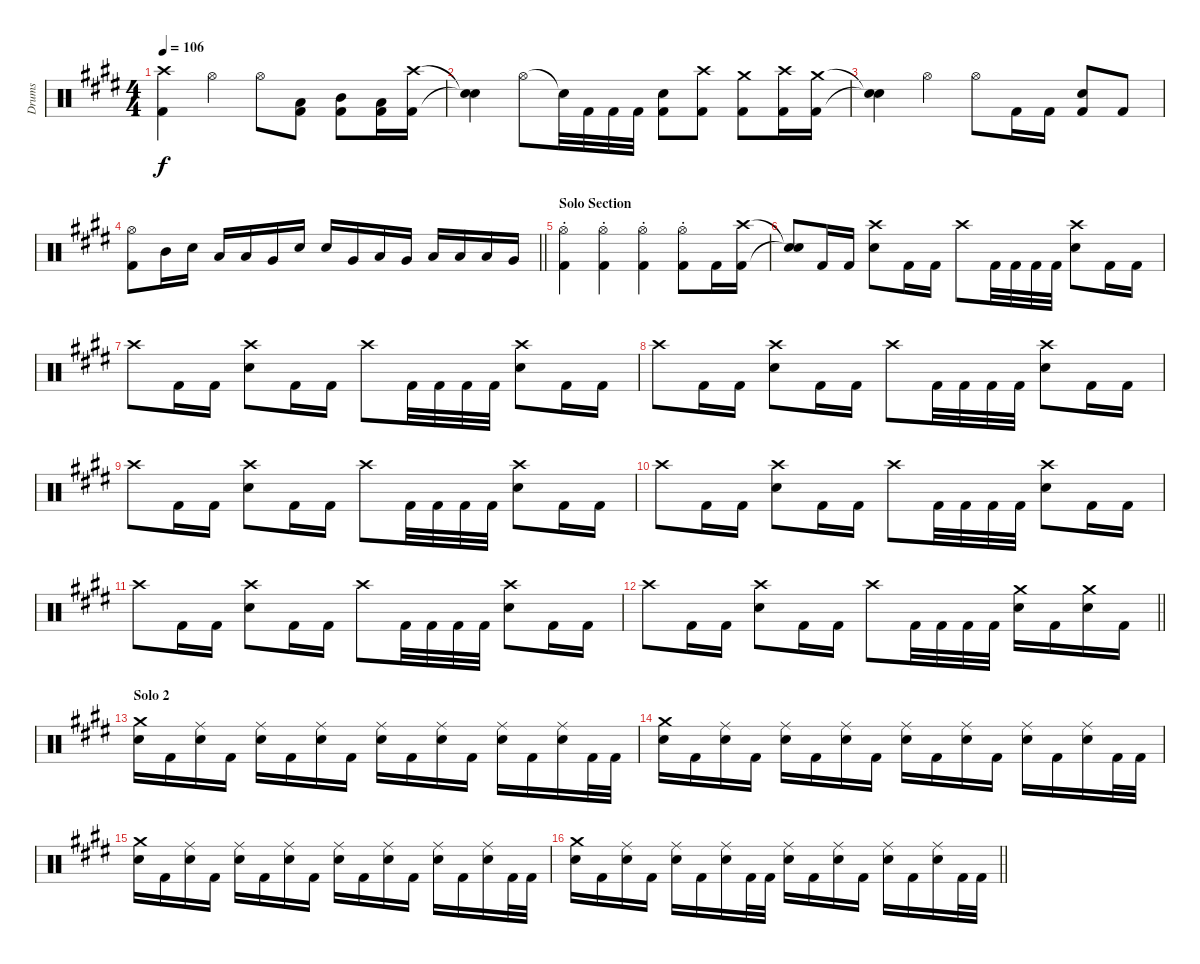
\track ("Drums" "Drums") {instrument percussion}
\staff {score}
\articulation defaults
\ts (4 4)
\tempo 106
\clef neutral
\ks c#minor
("Crash high (hit)" "Kick (hit) 2").4{dy f} "Hi-Hat (open)".4 "Hi-Hat (open)".8 ("Low Tom (hit)" "Kick (hit) 2").8 ("Mid Tom (hit)" "Kick (hit) 2").8 ("Low Tom (hit)" "Kick (hit) 2").16 ("Crash high (hit)" "Kick (hit) 2").16 |
("Snare (hit)"{t} "Snare (hit)"{t}).4 "Hi-Hat (open)".8 "Snare (hit)"{t}.32 "Kick (hit) 2".32 "Kick (hit) 2".32 "Kick (hit) 2".32 ("Snare (hit) 2" "Kick (hit) 2").8 ("Crash high (hit)" "Kick (hit) 2").8 ("Crash medium (hit)" "Kick (hit) 2").8 ("Crash high (hit)" "Kick (hit) 2").16 ("Crash medium (hit)" "Kick (hit) 2").16 |
("Snare (hit)"{t} "Snare (hit)"{t}).4 "Hi-Hat (open)".4 "Hi-Hat (open)".8 "Kick (hit) 2".16 "Kick (hit) 2".16 ("Snare (hit) 2" "Kick (hit) 2").8 "Kick (hit) 2".8 |
\barLineRight lightlight
("Hi-Hat (open)" "Kick (hit) 2").8 "Mid Tom (hit)".16 "Snare (hit) 2".16 "Low Tom (hit)".16 "Low Tom (hit)".16 "Very Low Tom (hit)".16 "Snare (hit) 2".16 "Snare (hit) 2".16 "Very Low Tom (hit)".16 "Low Floor Tom (hit)".16 "Very Low Tom (hit)".16 "Low Tom (hit)".16 "Low Tom (hit)".16 "Low Tom (hit)".16 "Very Low Tom (hit)".16 |
\section ("" "Solo Section")
("Hi-Hat (open)"{st} "Kick (hit) 2"{st}).4 ("Hi-Hat (open)"{st} "Kick (hit) 2"{st}).4 ("Hi-Hat (open)"{st} "Kick (hit) 2"{st}).4 ("Hi-Hat (open)"{st} "Kick (hit) 2").8 "Kick (hit) 2".16 ("Crash high (hit)" "Kick (hit) 2").16 |
("Snare (hit)"{t} "Snare (hit)"{t}).8 "Kick (hit) 2".16 "Kick (hit) 2".16 ("Crash high (hit)" "Snare (hit) 2").8 "Kick (hit) 2".16 "Kick (hit) 2".16 "Crash high (hit)".8 "Kick (hit) 2".32 "Kick (hit) 2".32 "Kick (hit) 2".32 "Kick (hit) 2".32 ("Crash high (hit)" "Snare (hit) 2").8 "Kick (hit) 2".16 "Kick (hit) 2".16 |
"Crash high (hit)".8 "Kick (hit) 2".16 "Kick (hit) 2".16 ("Crash high (hit)" "Snare (hit) 2").8 "Kick (hit) 2".16 "Kick (hit) 2".16 "Crash high (hit)".8 "Kick (hit) 2".32 "Kick (hit) 2".32 "Kick (hit) 2".32 "Kick (hit) 2".32 ("Crash high (hit)" "Snare (hit) 2").8 "Kick (hit) 2".16 "Kick (hit) 2".16 |
"Crash high (hit)".8 "Kick (hit) 2".16 "Kick (hit) 2".16 ("Crash high (hit)" "Snare (hit) 2").8 "Kick (hit) 2".16 "Kick (hit) 2".16 "Crash high (hit)".8 "Kick (hit) 2".32 "Kick (hit) 2".32 "Kick (hit) 2".32 "Kick (hit) 2".32 ("Crash high (hit)" "Snare (hit) 2").8 "Kick (hit) 2".16 "Kick (hit) 2".16 |
"Crash high (hit)".8 "Kick (hit) 2".16 "Kick (hit) 2".16 ("Crash high (hit)" "Snare (hit) 2").8 "Kick (hit) 2".16 "Kick (hit) 2".16 "Crash high (hit)".8 "Kick (hit) 2".32 "Kick (hit) 2".32 "Kick (hit) 2".32 "Kick (hit) 2".32 ("Crash high (hit)" "Snare (hit) 2").8 "Kick (hit) 2".16 "Kick (hit) 2".16 |
"Crash high (hit)".8 "Kick (hit) 2".16 "Kick (hit) 2".16 ("Crash high (hit)" "Snare (hit) 2").8 "Kick (hit) 2".16 "Kick (hit) 2".16 "Crash high (hit)".8 "Kick (hit) 2".32 "Kick (hit) 2".32 "Kick (hit) 2".32 "Kick (hit) 2".32 ("Crash high (hit)" "Snare (hit) 2").8 "Kick (hit) 2".16 "Kick (hit) 2".16 |
"Crash high (hit)".8 "Kick (hit) 2".16 "Kick (hit) 2".16 ("Crash high (hit)" "Snare (hit) 2").8 "Kick (hit) 2".16 "Kick (hit) 2".16 "Crash high (hit)".8 "Kick (hit) 2".32 "Kick (hit) 2".32 "Kick (hit) 2".32 "Kick (hit) 2".32 ("Crash high (hit)" "Snare (hit) 2").8 "Kick (hit) 2".16 "Kick (hit) 2".16 |
\barLineRight lightlight "Crash high (hit)".8 "Kick (hit) 2".16 "Kick (hit) 2".16
("Crash high (hit)" "Snare (hit) 2").8 "Kick (hit) 2".16 "Kick (hit) 2".16 "Crash high (hit)".8 "Kick (hit) 2".32 "Kick (hit) 2".32 "Kick (hit) 2".32 "Kick (hit) 2".32 ("Crash medium (hit)" "Snare (hit) 2").16 "Kick (hit) 2".16 ("Crash medium (hit)" "Snare (hit) 2").16 "Kick (hit) 2".16 |
\section ("" "Solo 2")
("Crash medium (hit)" "Snare (hit) 2").16 "Kick (hit) 2".16 ("Ride (middle)" "Snare (hit) 2").16 "Kick (hit) 2".16 ("Ride (middle)" "Snare (hit) 2").16 "Kick (hit) 2".16 ("Ride (middle)" "Snare (hit) 2").16 "Kick (hit) 2".16 ("Ride (middle)" "Snare (hit) 2").16 "Kick (hit) 2".16 ("Ride (middle)" "Snare (hit) 2").16 "Kick (hit) 2".16 ("Ride (middle)" "Snare (hit) 2").16 "Kick (hit) 2".16 ("Ride (middle)" "Snare (hit) 2").16 "Kick (hit) 2".32 "Kick (hit) 2".32 |
("Crash medium (hit)" "Snare (hit) 2").16 "Kick (hit) 2".16 ("Ride (middle)" "Snare (hit) 2").16 "Kick (hit) 2".16 ("Ride (middle)" "Snare (hit) 2").16 "Kick (hit) 2".16 ("Ride (middle)" "Snare (hit) 2").16 "Kick (hit) 2".16 ("Ride (middle)" "Snare (hit) 2").16 "Kick (hit) 2".16 ("Ride (middle)" "Snare (hit) 2").16 "Kick (hit) 2".16 ("Ride (middle)" "Snare (hit) 2").16 "Kick (hit) 2".16 ("Ride (middle)" "Snare (hit) 2").16 "Kick (hit) 2".32 "Kick (hit) 2".32 |
("Crash medium (hit)" "Snare (hit) 2").16 "Kick (hit) 2".16 ("Ride (middle)" "Snare (hit) 2").16 "Kick (hit) 2".16 ("Ride (middle)" "Snare (hit) 2").16 "Kick (hit) 2".16 ("Ride (middle)" "Snare (hit) 2").16 "Kick (hit) 2".16 ("Ride (middle)" "Snare (hit) 2").16 "Kick (hit) 2".16 ("Ride (middle)" "Snare (hit) 2").16 "Kick (hit) 2".16 ("Ride (middle)" "Snare (hit) 2").16 "Kick (hit) 2".16 ("Ride (middle)" "Snare (hit) 2").16 "Kick (hit) 2".32 "Kick (hit) 2".32 |
\barLineRight lightlight
("Crash medium (hit)" "Snare (hit) 2").16 "Kick (hit) 2".16 ("Ride (middle)" "Snare (hit) 2").16 "Kick (hit) 2".16 ("Ride (middle)" "Snare (hit) 2").16 "Kick (hit) 2".16 ("Ride (middle)" "Snare (hit) 2").16 "Kick (hit) 2".32 "Kick (hit) 2".32 ("Ride (middle)" "Snare (hit) 2").16 "Kick (hit) 2".16 ("Ride (middle)" "Snare (hit) 2").16 "Kick (hit) 2".16 ("Ride (middle)" "Snare (hit) 2").16 "Kick (hit) 2".16 ("Ride (middle)" "Snare (hit) 2").16 "Kick (hit) 2".32 "Kick (hit) 2".32
